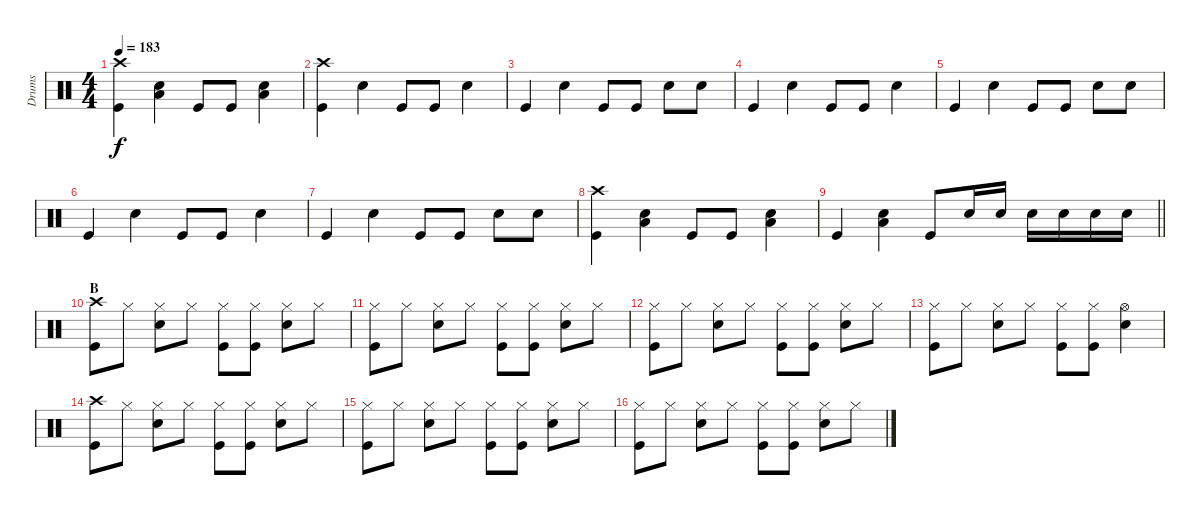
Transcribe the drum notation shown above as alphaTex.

\track ("Drums" "Drums") {instrument percussion}
\staff {score}
\articulation defaults
\ts (4 4)
\tempo 183
\clef neutral
\ks c
("Crash high (hit)" "Kick (hit)").4{dy f} ("Electric Snare (hit)" "Low Tom (hit)").4 "Kick (hit)".8 "Kick (hit)".8 ("Electric Snare (hit)" "Low Tom (hit)").4 |
("Crash high (hit)" "Kick (hit)").4 "Electric Snare (hit)".4 "Kick (hit)".8 "Kick (hit)".8 "Electric Snare (hit)".4 |
"Kick (hit)".4 "Electric Snare (hit)".4 "Kick (hit)".8 "Kick (hit)".8 "Electric Snare (hit)".8 "Electric Snare (hit)".8 |
"Kick (hit)".4 "Electric Snare (hit)".4 "Kick (hit)".8 "Kick (hit)".8 "Electric Snare (hit)".4 |
"Kick (hit)".4 "Electric Snare (hit)".4 "Kick (hit)".8 "Kick (hit)".8 "Electric Snare (hit)".8 "Electric Snare (hit)".8 |
"Kick (hit)".4 "Electric Snare (hit)".4 "Kick (hit)".8 "Kick (hit)".8 "Electric Snare (hit)".4 |
"Kick (hit)".4 "Electric Snare (hit)".4 "Kick (hit)".8 "Kick (hit)".8 "Electric Snare (hit)".8 "Electric Snare (hit)".8 |
("Crash high (hit)" "Kick (hit)").4 ("Electric Snare (hit)" "Low Tom (hit)").4 "Kick (hit)".8 "Kick (hit)".8 ("Electric Snare (hit)" "Low Tom (hit)").4 |
\barLineRight lightlight "Kick (hit)".4
("Electric Snare (hit)" "Low Tom (hit)").4 "Kick (hit)".8 "Electric Snare (hit)".16 "Electric Snare (hit)".16 "Electric Snare (hit)".16 "Electric Snare (hit)".16 "Electric Snare (hit)".16 "Electric Snare (hit)".16 |
\section ("" "B")
("Crash high (hit)" "Kick (hit)").8 "Hi-Hat (closed)".8 ("Hi-Hat (closed)" "Electric Snare (hit)").8 "Hi-Hat (closed)".8 ("Hi-Hat (closed)" "Kick (hit)").8 ("Hi-Hat (closed)" "Kick (hit)").8 ("Hi-Hat (closed)" "Electric Snare (hit)").8 "Hi-Hat (closed)".8 |
("Hi-Hat (closed)" "Kick (hit)").8 "Hi-Hat (closed)".8 ("Hi-Hat (closed)" "Electric Snare (hit)").8 "Hi-Hat (closed)".8 ("Hi-Hat (closed)" "Kick (hit)").8 ("Hi-Hat (closed)" "Kick (hit)").8 ("Hi-Hat (closed)" "Electric Snare (hit)").8 "Hi-Hat (closed)".8 |
("Hi-Hat (closed)" "Kick (hit)").8 "Hi-Hat (closed)".8 ("Hi-Hat (closed)" "Electric Snare (hit)").8 "Hi-Hat (closed)".8 ("Hi-Hat (closed)" "Kick (hit)").8 ("Hi-Hat (closed)" "Kick (hit)").8 ("Hi-Hat (closed)" "Electric Snare (hit)").8 "Hi-Hat (closed)".8 |
("Hi-Hat (closed)" "Kick (hit)").8 "Hi-Hat (closed)".8 ("Hi-Hat (closed)" "Electric Snare (hit)").8 "Hi-Hat (closed)".8 ("Hi-Hat (closed)" "Kick (hit)").8 ("Hi-Hat (closed)" "Kick (hit)").8 ("Hi-Hat (open)" "Electric Snare (hit)").4 |
("Crash high (hit)" "Kick (hit)").8 "Hi-Hat (closed)".8 ("Hi-Hat (closed)" "Electric Snare (hit)").8 "Hi-Hat (closed)".8 ("Hi-Hat (closed)" "Kick (hit)").8 ("Hi-Hat (closed)" "Kick (hit)").8 ("Hi-Hat (closed)" "Electric Snare (hit)").8 "Hi-Hat (closed)".8 |
("Hi-Hat (closed)" "Kick (hit)").8 "Hi-Hat (closed)".8 ("Hi-Hat (closed)" "Electric Snare (hit)").8 "Hi-Hat (closed)".8 ("Hi-Hat (closed)" "Kick (hit)").8 ("Hi-Hat (closed)" "Kick (hit)").8 ("Hi-Hat (closed)" "Electric Snare (hit)").8 "Hi-Hat (closed)".8 |
("Hi-Hat (closed)" "Kick (hit)").8 "Hi-Hat (closed)".8 ("Hi-Hat (closed)" "Electric Snare (hit)").8 "Hi-Hat (closed)".8 ("Hi-Hat (closed)" "Kick (hit)").8 ("Hi-Hat (closed)" "Kick (hit)").8 ("Hi-Hat (closed)" "Electric Snare (hit)").8 "Hi-Hat (closed)".8
